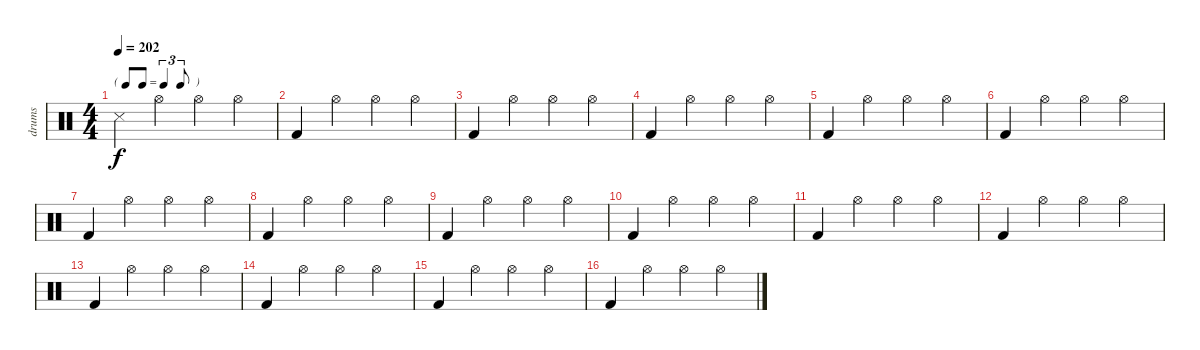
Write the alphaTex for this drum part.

\track ("drums" "drums") {instrument percussion}
\staff {score}
\articulation defaults
\ts (4 4)
\tf triplet8th
\tempo 202
\clef neutral
\ks c "Snare (side stick) 3".4{dy f} "Hi-Hat (open)".4 "Hi-Hat (open)".4 "Hi-Hat (open)".4
|
"Kick (hit) 2".4 "Hi-Hat (open)".4 "Hi-Hat (open)".4 "Hi-Hat (open)".4 |
"Kick (hit) 2".4 "Hi-Hat (open)".4 "Hi-Hat (open)".4 "Hi-Hat (open)".4 |
"Kick (hit) 2".4 "Hi-Hat (open)".4 "Hi-Hat (open)".4 "Hi-Hat (open)".4 |
"Kick (hit) 2".4 "Hi-Hat (open)".4 "Hi-Hat (open)".4 "Hi-Hat (open)".4 |
"Kick (hit) 2".4 "Hi-Hat (open)".4 "Hi-Hat (open)".4 "Hi-Hat (open)".4 |
"Kick (hit) 2".4 "Hi-Hat (open)".4 "Hi-Hat (open)".4 "Hi-Hat (open)".4 |
"Kick (hit) 2".4 "Hi-Hat (open)".4 "Hi-Hat (open)".4 "Hi-Hat (open)".4 |
"Kick (hit) 2".4 "Hi-Hat (open)".4 "Hi-Hat (open)".4 "Hi-Hat (open)".4 |
"Kick (hit) 2".4 "Hi-Hat (open)".4 "Hi-Hat (open)".4 "Hi-Hat (open)".4 |
"Kick (hit) 2".4 "Hi-Hat (open)".4 "Hi-Hat (open)".4 "Hi-Hat (open)".4 |
"Kick (hit) 2".4 "Hi-Hat (open)".4 "Hi-Hat (open)".4 "Hi-Hat (open)".4 |
"Kick (hit) 2".4 "Hi-Hat (open)".4 "Hi-Hat (open)".4 "Hi-Hat (open)".4 |
"Kick (hit) 2".4 "Hi-Hat (open)".4 "Hi-Hat (open)".4 "Hi-Hat (open)".4 |
"Kick (hit) 2".4 "Hi-Hat (open)".4 "Hi-Hat (open)".4 "Hi-Hat (open)".4 |
"Kick (hit) 2".4 "Hi-Hat (open)".4 "Hi-Hat (open)".4 "Hi-Hat (open)".4
